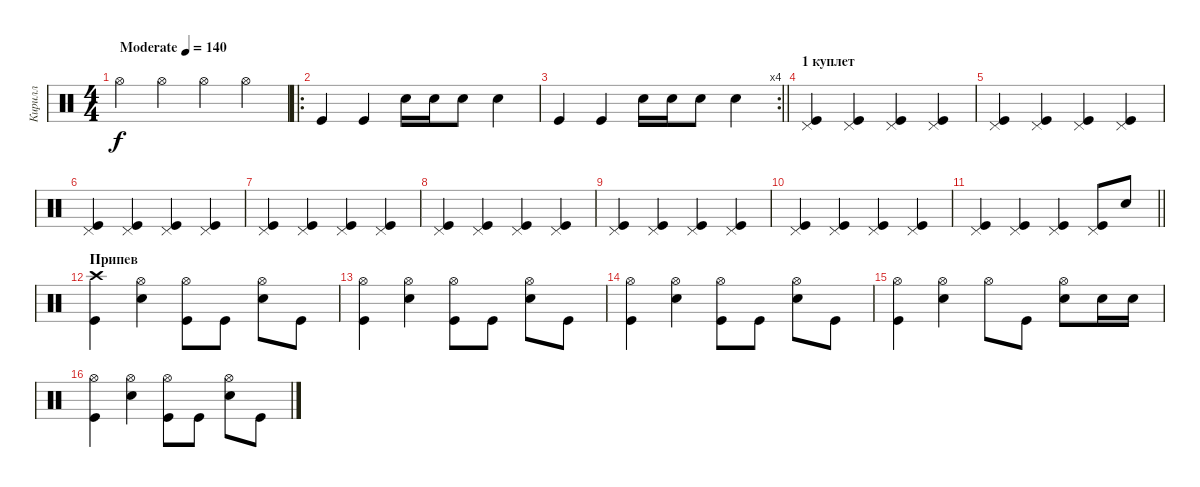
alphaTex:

\track ("Кирилл" "Кирилл") {instrument percussion}
\staff {score}
\articulation defaults
\ts (4 4)
\tempo (140 "Moderate")
\clef neutral
\ks c "Hi-Hat (open)".4{dy f} "Hi-Hat (open)".4 "Hi-Hat (open)".4 "Hi-Hat (open)".4
|
\ro "Kick (hit)".4 "Kick (hit)".4 "Snare (hit) 2".16 "Snare (hit) 2".16 "Snare (hit) 2".8 "Snare (hit) 2".4
|
\rc 4
\barLineRight lightlight "Kick (hit)".4 "Kick (hit)".4 "Snare (hit) 2".16 "Snare (hit) 2".16 "Snare (hit) 2".8 "Snare (hit) 2".4
|
\section ("" "1 куплет")
("Pedal Hi-Hat (hit)" "Kick (hit)").4 ("Pedal Hi-Hat (hit)" "Kick (hit)").4 ("Pedal Hi-Hat (hit)" "Kick (hit)").4 ("Pedal Hi-Hat (hit)" "Kick (hit)").4 |
("Pedal Hi-Hat (hit)" "Kick (hit)").4 ("Pedal Hi-Hat (hit)" "Kick (hit)").4 ("Pedal Hi-Hat (hit)" "Kick (hit)").4 ("Pedal Hi-Hat (hit)" "Kick (hit)").4 |
("Pedal Hi-Hat (hit)" "Kick (hit)").4 ("Pedal Hi-Hat (hit)" "Kick (hit)").4 ("Pedal Hi-Hat (hit)" "Kick (hit)").4 ("Pedal Hi-Hat (hit)" "Kick (hit)").4 |
("Pedal Hi-Hat (hit)" "Kick (hit)").4 ("Pedal Hi-Hat (hit)" "Kick (hit)").4 ("Pedal Hi-Hat (hit)" "Kick (hit)").4 ("Pedal Hi-Hat (hit)" "Kick (hit)").4 |
("Pedal Hi-Hat (hit)" "Kick (hit)").4 ("Pedal Hi-Hat (hit)" "Kick (hit)").4 ("Pedal Hi-Hat (hit)" "Kick (hit)").4 ("Pedal Hi-Hat (hit)" "Kick (hit)").4 |
("Pedal Hi-Hat (hit)" "Kick (hit)").4 ("Pedal Hi-Hat (hit)" "Kick (hit)").4 ("Pedal Hi-Hat (hit)" "Kick (hit)").4 ("Pedal Hi-Hat (hit)" "Kick (hit)").4 |
("Pedal Hi-Hat (hit)" "Kick (hit)").4 ("Pedal Hi-Hat (hit)" "Kick (hit)").4 ("Pedal Hi-Hat (hit)" "Kick (hit)").4 ("Pedal Hi-Hat (hit)" "Kick (hit)").4 |
\barLineRight lightlight
("Pedal Hi-Hat (hit)" "Kick (hit)").4 ("Pedal Hi-Hat (hit)" "Kick (hit)").4 ("Pedal Hi-Hat (hit)" "Kick (hit)").4 ("Pedal Hi-Hat (hit)" "Kick (hit)").8 "Snare (hit) 2".8 |
\section ("" "Припев")
("Crash high (hit)" "Kick (hit)").4 ("Hi-Hat (open)" "Snare (hit) 2").4 ("Hi-Hat (open)" "Kick (hit)").8 "Kick (hit)".8 ("Hi-Hat (open)" "Snare (hit) 2").8 "Kick (hit)".8 |
("Hi-Hat (open)" "Kick (hit)").4 ("Hi-Hat (open)" "Snare (hit) 2").4 ("Hi-Hat (open)" "Kick (hit)").8 "Kick (hit)".8 ("Hi-Hat (open)" "Snare (hit) 2").8 "Kick (hit)".8 |
("Hi-Hat (open)" "Kick (hit)").4 ("Hi-Hat (open)" "Snare (hit) 2").4 ("Hi-Hat (open)" "Kick (hit)").8 "Kick (hit)".8 ("Hi-Hat (open)" "Snare (hit) 2").8 "Kick (hit)".8 |
("Hi-Hat (open)" "Kick (hit)").4 ("Hi-Hat (open)" "Snare (hit) 2").4 "Hi-Hat (open)".8 "Kick (hit)".8 ("Hi-Hat (open)" "Snare (hit) 2").8 "Snare (hit) 2".16 "Snare (hit) 2".16 |
("Hi-Hat (open)" "Kick (hit)").4 ("Hi-Hat (open)" "Snare (hit) 2").4 ("Hi-Hat (open)" "Kick (hit)").8 "Kick (hit)".8 ("Hi-Hat (open)" "Snare (hit) 2").8 "Kick (hit)".8
